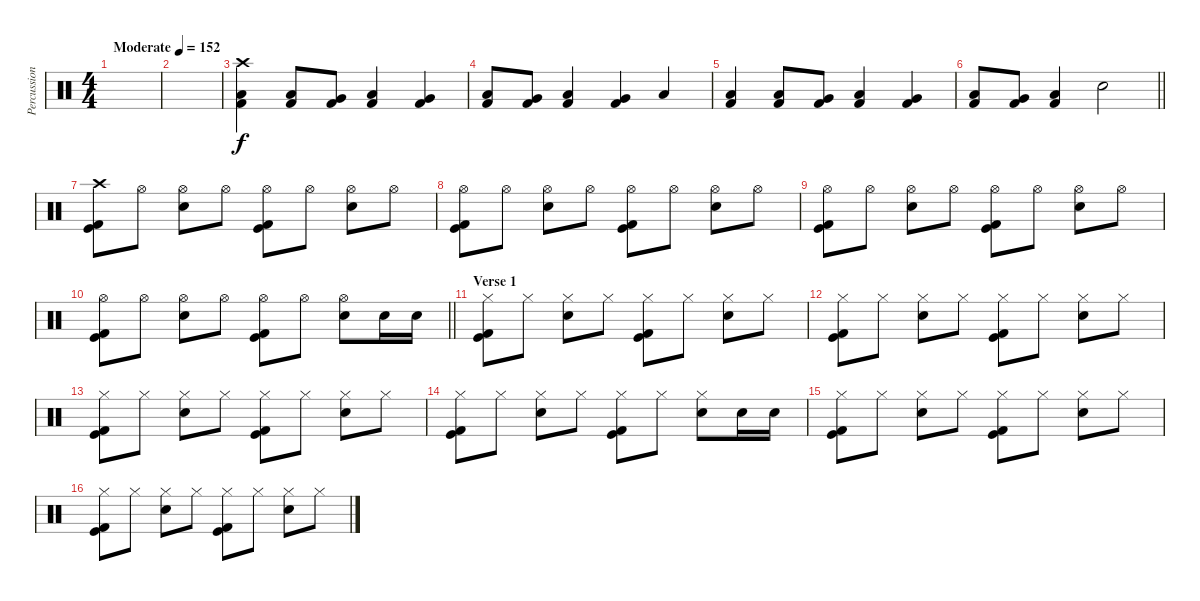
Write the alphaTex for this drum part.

\track ("Percussion" "Percussion") {instrument percussion}
\staff {score}
\articulation defaults
\ts (4 4)
\tempo (152 "Moderate")
\clef neutral
\ks c
|
|
("Crash high (hit)" "Kick (hit) 2" "Low Tom (hit)").4 ("Kick (hit) 2" "Low Tom (hit)").8 ("Kick (hit) 2" "Very Low Tom (hit)").8 ("Kick (hit) 2" "Low Floor Tom (hit)").4 ("Kick (hit) 2" "Very Low Tom (hit)").4 |
("Kick (hit) 2" "Low Tom (hit)").8 ("Kick (hit) 2" "Very Low Tom (hit)").8 ("Kick (hit) 2" "Low Floor Tom (hit)").4 ("Kick (hit) 2" "Very Low Tom (hit)").4 "Low Floor Tom (hit)".4 |
("Kick (hit) 2" "Low Tom (hit)").4 ("Kick (hit) 2" "Low Tom (hit)").8 ("Kick (hit) 2" "Very Low Tom (hit)").8 ("Kick (hit) 2" "Low Floor Tom (hit)").4 ("Kick (hit) 2" "Very Low Tom (hit)").4 |
\barLineRight lightlight
("Kick (hit) 2" "Low Tom (hit)").8 ("Kick (hit) 2" "Very Low Tom (hit)").8 ("Kick (hit) 2" "Low Floor Tom (hit)").4 "Electric Snare (hit)".2 |
\section ("" "")
("Crash high (hit)" "Kick (hit)" "Kick (hit) 2").8 "Hi-Hat (open)".8 ("Hi-Hat (open)" "Electric Snare (hit)").8 "Hi-Hat (open)".8 ("Hi-Hat (open)" "Kick (hit)" "Kick (hit) 2").8 "Hi-Hat (open)".8 ("Hi-Hat (open)" "Electric Snare (hit)").8 "Hi-Hat (open)".8 |
("Hi-Hat (open)" "Kick (hit)" "Kick (hit) 2").8 "Hi-Hat (open)".8 ("Hi-Hat (open)" "Electric Snare (hit)").8 "Hi-Hat (open)".8 ("Hi-Hat (open)" "Kick (hit)" "Kick (hit) 2").8 "Hi-Hat (open)".8 ("Hi-Hat (open)" "Electric Snare (hit)").8 "Hi-Hat (open)".8 |
("Hi-Hat (open)" "Kick (hit)" "Kick (hit) 2").8 "Hi-Hat (open)".8 ("Hi-Hat (open)" "Electric Snare (hit)").8 "Hi-Hat (open)".8 ("Hi-Hat (open)" "Kick (hit)" "Kick (hit) 2").8 "Hi-Hat (open)".8 ("Hi-Hat (open)" "Electric Snare (hit)").8 "Hi-Hat (open)".8 |
\barLineRight lightlight
("Hi-Hat (open)" "Kick (hit)" "Kick (hit) 2").8 "Hi-Hat (open)".8 ("Hi-Hat (open)" "Electric Snare (hit)").8 "Hi-Hat (open)".8 ("Hi-Hat (open)" "Kick (hit)" "Kick (hit) 2").8 "Hi-Hat (open)".8 ("Hi-Hat (open)" "Electric Snare (hit)").8 "Electric Snare (hit)".16 "Electric Snare (hit)".16 |
\section ("" "Verse 1")
("Hi-Hat (closed)" "Kick (hit)" "Kick (hit) 2").8 "Hi-Hat (closed)".8 ("Hi-Hat (closed)" "Electric Snare (hit)").8 "Hi-Hat (closed)".8 ("Hi-Hat (closed)" "Kick (hit)" "Kick (hit) 2").8 "Hi-Hat (closed)".8 ("Hi-Hat (closed)" "Electric Snare (hit)").8 "Hi-Hat (closed)".8 |
("Hi-Hat (closed)" "Kick (hit)" "Kick (hit) 2").8 "Hi-Hat (closed)".8 ("Hi-Hat (closed)" "Electric Snare (hit)").8 "Hi-Hat (closed)".8 ("Hi-Hat (closed)" "Kick (hit)" "Kick (hit) 2").8 "Hi-Hat (closed)".8 ("Hi-Hat (closed)" "Electric Snare (hit)").8 "Hi-Hat (closed)".8 |
("Hi-Hat (closed)" "Kick (hit)" "Kick (hit) 2").8 "Hi-Hat (closed)".8 ("Hi-Hat (closed)" "Electric Snare (hit)").8 "Hi-Hat (closed)".8 ("Hi-Hat (closed)" "Kick (hit)" "Kick (hit) 2").8 "Hi-Hat (closed)".8 ("Hi-Hat (closed)" "Electric Snare (hit)").8 "Hi-Hat (closed)".8 |
("Hi-Hat (closed)" "Kick (hit)" "Kick (hit) 2").8 "Hi-Hat (closed)".8 ("Hi-Hat (closed)" "Electric Snare (hit)").8 "Hi-Hat (closed)".8 ("Hi-Hat (closed)" "Kick (hit)" "Kick (hit) 2").8 "Hi-Hat (closed)".8 ("Hi-Hat (closed)" "Electric Snare (hit)").8 "Electric Snare (hit)".16 "Electric Snare (hit)".16 |
("Hi-Hat (closed)" "Kick (hit)" "Kick (hit) 2").8 "Hi-Hat (closed)".8 ("Hi-Hat (closed)" "Electric Snare (hit)").8 "Hi-Hat (closed)".8 ("Hi-Hat (closed)" "Kick (hit)" "Kick (hit) 2").8 "Hi-Hat (closed)".8 ("Hi-Hat (closed)" "Electric Snare (hit)").8 "Hi-Hat (closed)".8 |
("Hi-Hat (closed)" "Kick (hit)" "Kick (hit) 2").8 "Hi-Hat (closed)".8 ("Hi-Hat (closed)" "Electric Snare (hit)").8 "Hi-Hat (closed)".8 ("Hi-Hat (closed)" "Kick (hit)" "Kick (hit) 2").8 "Hi-Hat (closed)".8 ("Hi-Hat (closed)" "Electric Snare (hit)").8 "Hi-Hat (closed)".8
